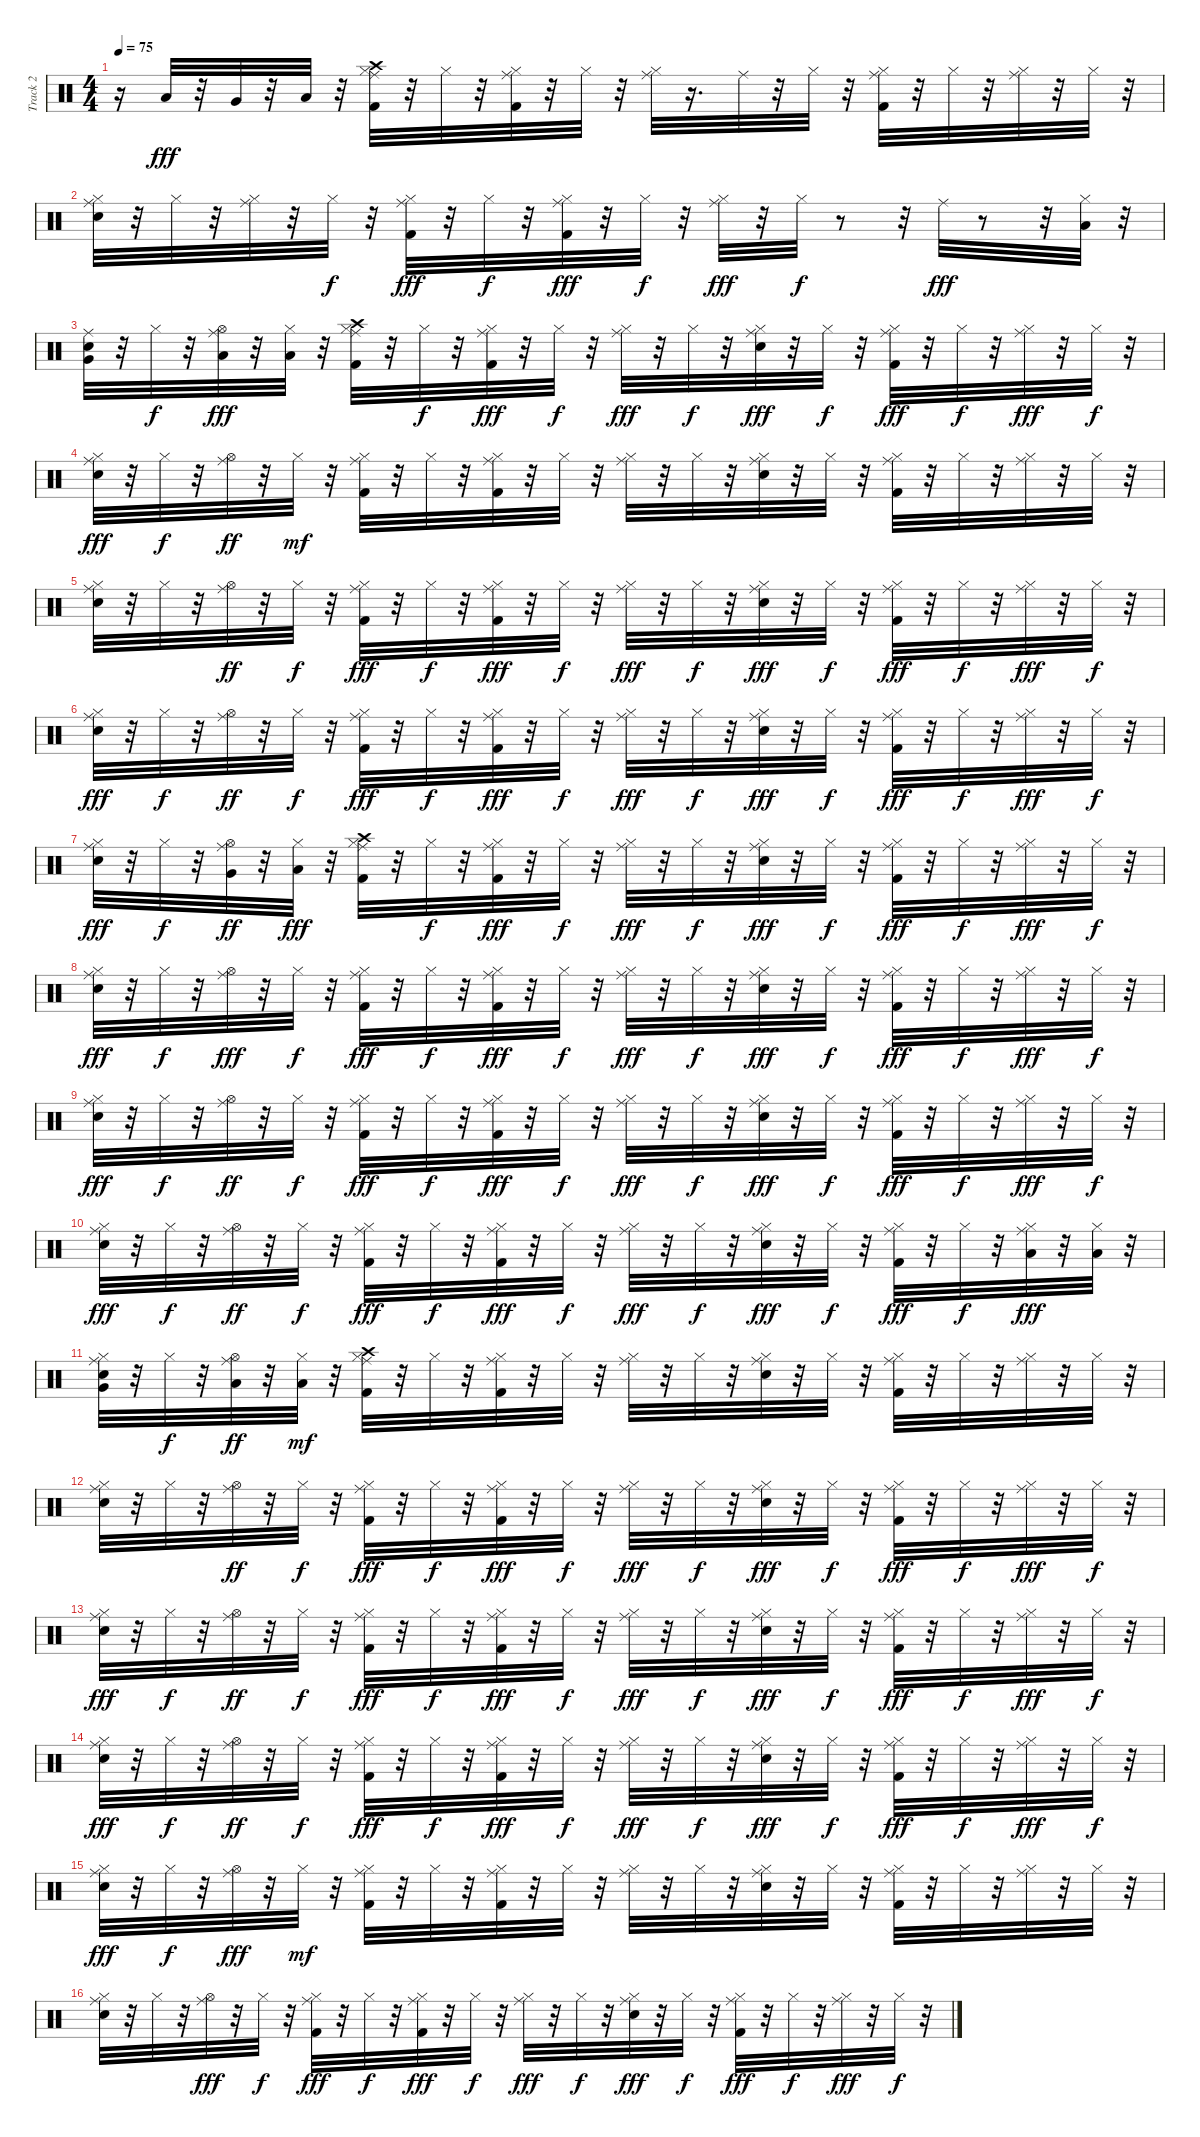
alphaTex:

\track ("Track 2" "Track 2") {instrument percussion}
\staff {score}
\articulation defaults
\ts (4 4)
\tempo 75
\clef neutral
\ks c
r.16{dy fff} "Low Tom (hit)".32 r.32 "Very Low Tom (hit)".32 r.32 "Low Floor Tom (hit)".32 r.32 ("Ride (middle)" "Kick (hit) 2" "Crash high (hit)" "Hi-Hat (closed)").32 r.32 "Hi-Hat (closed)".32 r.32 ("Kick (hit) 2" "Ride (middle)" "Hi-Hat (closed)").32 r.32 "Hi-Hat (closed)".32 r.32 ("Ride (middle)" "Hi-Hat (closed)").32 r.16{d} "Ride (middle)".32 r.32 "Hi-Hat (closed)".32 r.32 ("Kick (hit) 2" "Ride (middle)" "Hi-Hat (closed)").32 r.32 "Hi-Hat (closed)".32 r.32 ("Ride (middle)" "Hi-Hat (closed)").32 r.32 "Hi-Hat (closed)".32 r.32 |
("Snare (hit) 2" "Ride (middle)" "Hi-Hat (closed)").32 r.32 "Hi-Hat (closed)".32 r.32 ("Ride (middle)" "Hi-Hat (closed)").32 r.32 "Hi-Hat (closed)".32{dy f} r.32 ("Kick (hit) 2" "Ride (middle)" "Hi-Hat (closed)").32{dy fff} r.32 "Hi-Hat (closed)".32{dy f} r.32 ("Ride (middle)" "Kick (hit) 2" "Hi-Hat (closed)").32{dy fff} r.32 "Hi-Hat (closed)".32{dy f} r.32 ("Ride (middle)" "Hi-Hat (closed)").32{dy fff} r.32 "Hi-Hat (closed)".32{dy f} r.8 r.32 "Ride (middle)".32{dy fff} r.8 r.32 ("Low Tom (hit)" "Hi-Hat (closed)").32 r.32 |
("Snare (hit) 2" "Ride (middle)" "Very Low Tom (hit)").32 r.32 "Hi-Hat (closed)".32{dy f} r.32 ("Ride (middle)" "Low Floor Tom (hit)" "Hi-Hat (open)").32{dy fff} r.32 ("Low Floor Tom (hit)" "Hi-Hat (closed)").32 r.32 ("Kick (hit) 2" "Ride (middle)" "Crash high (hit)" "Hi-Hat (closed)").32 r.32 "Hi-Hat (closed)".32{dy f} r.32 ("Kick (hit) 2" "Ride (middle)" "Hi-Hat (closed)").32{dy fff} r.32 "Hi-Hat (closed)".32{dy f} r.32 ("Ride (middle)" "Hi-Hat (closed)").32{dy fff} r.32 "Hi-Hat (closed)".32{dy f} r.32 ("Snare (hit) 2" "Ride (middle)" "Hi-Hat (closed)").32{dy fff} r.32 "Hi-Hat (closed)".32{dy f} r.32 ("Kick (hit) 2" "Ride (middle)" "Hi-Hat (closed)").32{dy fff} r.32 "Hi-Hat (closed)".32{dy f} r.32 ("Ride (middle)" "Hi-Hat (closed)").32{dy fff} r.32 "Hi-Hat (closed)".32{dy f} r.32 |
("Snare (hit) 2" "Ride (middle)" "Hi-Hat (closed)").32{dy fff} r.32 "Hi-Hat (closed)".32{dy f} r.32 ("Ride (middle)" "Hi-Hat (open)").32{dy ff} r.32 "Hi-Hat (closed)".32{dy mf} r.32 ("Kick (hit) 2" "Ride (middle)" "Hi-Hat (closed)").32 r.32 "Hi-Hat (closed)".32 r.32 ("Kick (hit) 2" "Ride (middle)" "Hi-Hat (closed)").32 r.32 "Hi-Hat (closed)".32 r.32 ("Ride (middle)" "Hi-Hat (closed)").32 r.32 "Hi-Hat (closed)".32 r.32 ("Snare (hit) 2" "Ride (middle)" "Hi-Hat (closed)").32 r.32 "Hi-Hat (closed)".32 r.32 ("Ride (middle)" "Kick (hit) 2" "Hi-Hat (closed)").32 r.32 "Hi-Hat (closed)".32 r.32 ("Ride (middle)" "Hi-Hat (closed)").32 r.32 "Hi-Hat (closed)".32 r.32 |
("Snare (hit) 2" "Ride (middle)" "Hi-Hat (closed)").32 r.32 "Hi-Hat (closed)".32 r.32 ("Ride (middle)" "Hi-Hat (open)").32{dy ff} r.32 "Hi-Hat (closed)".32{dy f} r.32 ("Kick (hit) 2" "Ride (middle)" "Hi-Hat (closed)").32{dy fff} r.32 "Hi-Hat (closed)".32{dy f} r.32 ("Kick (hit) 2" "Ride (middle)" "Hi-Hat (closed)").32{dy fff} r.32 "Hi-Hat (closed)".32{dy f} r.32 ("Ride (middle)" "Hi-Hat (closed)").32{dy fff} r.32 "Hi-Hat (closed)".32{dy f} r.32 ("Snare (hit) 2" "Ride (middle)" "Hi-Hat (closed)").32{dy fff} r.32 "Hi-Hat (closed)".32{dy f} r.32 ("Ride (middle)" "Kick (hit) 2" "Hi-Hat (closed)").32{dy fff} r.32 "Hi-Hat (closed)".32{dy f} r.32 ("Ride (middle)" "Hi-Hat (closed)").32{dy fff} r.32 "Hi-Hat (closed)".32{dy f} r.32 |
("Snare (hit) 2" "Ride (middle)" "Hi-Hat (closed)").32{dy fff} r.32 "Hi-Hat (closed)".32{dy f} r.32 ("Ride (middle)" "Hi-Hat (open)").32{dy ff} r.32 "Hi-Hat (closed)".32{dy f} r.32 ("Ride (middle)" "Kick (hit) 2" "Hi-Hat (closed)").32{dy fff} r.32 "Hi-Hat (closed)".32{dy f} r.32 ("Kick (hit) 2" "Ride (middle)" "Hi-Hat (closed)").32{dy fff} r.32 "Hi-Hat (closed)".32{dy f} r.32 ("Ride (middle)" "Hi-Hat (closed)").32{dy fff} r.32 "Hi-Hat (closed)".32{dy f} r.32 ("Snare (hit) 2" "Ride (middle)" "Hi-Hat (closed)").32{dy fff} r.32 "Hi-Hat (closed)".32{dy f} r.32 ("Kick (hit) 2" "Ride (middle)" "Hi-Hat (closed)").32{dy fff} r.32 "Hi-Hat (closed)".32{dy f} r.32 ("Ride (middle)" "Hi-Hat (closed)").32{dy fff} r.32 "Hi-Hat (closed)".32{dy f} r.32 |
("Snare (hit) 2" "Ride (middle)" "Hi-Hat (closed)").32{dy fff} r.32 "Hi-Hat (closed)".32{dy f} r.32 ("Ride (middle)" "Very Low Tom (hit)" "Hi-Hat (open)").32{dy ff} r.32 ("Low Floor Tom (hit)" "Hi-Hat (closed)").32{dy fff} r.32 ("Kick (hit) 2" "Ride (middle)" "Crash high (hit)" "Hi-Hat (closed)").32 r.32 "Hi-Hat (closed)".32{dy f} r.32 ("Kick (hit) 2" "Ride (middle)" "Hi-Hat (closed)").32{dy fff} r.32 "Hi-Hat (closed)".32{dy f} r.32 ("Ride (middle)" "Hi-Hat (closed)").32{dy fff} r.32 "Hi-Hat (closed)".32{dy f} r.32 ("Snare (hit) 2" "Ride (middle)" "Hi-Hat (closed)").32{dy fff} r.32 "Hi-Hat (closed)".32{dy f} r.32 ("Kick (hit) 2" "Ride (middle)" "Hi-Hat (closed)").32{dy fff} r.32 "Hi-Hat (closed)".32{dy f} r.32 ("Ride (middle)" "Hi-Hat (closed)").32{dy fff} r.32 "Hi-Hat (closed)".32{dy f} r.32 |
("Ride (middle)" "Snare (hit) 2" "Hi-Hat (closed)").32{dy fff} r.32 "Hi-Hat (closed)".32{dy f} r.32 ("Ride (middle)" "Hi-Hat (open)").32{dy fff} r.32 "Hi-Hat (closed)".32{dy f} r.32 ("Kick (hit) 2" "Ride (middle)" "Hi-Hat (closed)").32{dy fff} r.32 "Hi-Hat (closed)".32{dy f} r.32 ("Ride (middle)" "Kick (hit) 2" "Hi-Hat (closed)").32{dy fff} r.32 "Hi-Hat (closed)".32{dy f} r.32 ("Ride (middle)" "Hi-Hat (closed)").32{dy fff} r.32 "Hi-Hat (closed)".32{dy f} r.32 ("Ride (middle)" "Snare (hit) 2" "Hi-Hat (closed)").32{dy fff} r.32 "Hi-Hat (closed)".32{dy f} r.32 ("Kick (hit) 2" "Ride (middle)" "Hi-Hat (closed)").32{dy fff} r.32 "Hi-Hat (closed)".32{dy f} r.32 ("Ride (middle)" "Hi-Hat (closed)").32{dy fff} r.32 "Hi-Hat (closed)".32{dy f} r.32 |
("Snare (hit) 2" "Ride (middle)" "Hi-Hat (closed)").32{dy fff} r.32 "Hi-Hat (closed)".32{dy f} r.32 ("Ride (middle)" "Hi-Hat (open)").32{dy ff} r.32 "Hi-Hat (closed)".32{dy f} r.32 ("Kick (hit) 2" "Ride (middle)" "Hi-Hat (closed)").32{dy fff} r.32 "Hi-Hat (closed)".32{dy f} r.32 ("Kick (hit) 2" "Ride (middle)" "Hi-Hat (closed)").32{dy fff} r.32 "Hi-Hat (closed)".32{dy f} r.32 ("Ride (middle)" "Hi-Hat (closed)").32{dy fff} r.32 "Hi-Hat (closed)".32{dy f} r.32 ("Snare (hit) 2" "Ride (middle)" "Hi-Hat (closed)").32{dy fff} r.32 "Hi-Hat (closed)".32{dy f} r.32 ("Ride (middle)" "Kick (hit) 2" "Hi-Hat (closed)").32{dy fff} r.32 "Hi-Hat (closed)".32{dy f} r.32 ("Ride (middle)" "Hi-Hat (closed)").32{dy fff} r.32 "Hi-Hat (closed)".32{dy f} r.32 |
("Ride (middle)" "Snare (hit) 2" "Hi-Hat (closed)").32{dy fff} r.32 "Hi-Hat (closed)".32{dy f} r.32 ("Ride (middle)" "Hi-Hat (open)").32{dy ff} r.32 "Hi-Hat (closed)".32{dy f} r.32 ("Kick (hit) 2" "Ride (middle)" "Hi-Hat (closed)").32{dy fff} r.32 "Hi-Hat (closed)".32{dy f} r.32 ("Kick (hit) 2" "Ride (middle)" "Hi-Hat (closed)").32{dy fff} r.32 "Hi-Hat (closed)".32{dy f} r.32 ("Ride (middle)" "Hi-Hat (closed)").32{dy fff} r.32 "Hi-Hat (closed)".32{dy f} r.32 ("Snare (hit) 2" "Ride (middle)" "Hi-Hat (closed)").32{dy fff} r.32 "Hi-Hat (closed)".32{dy f} r.32 ("Ride (middle)" "Kick (hit) 2" "Hi-Hat (closed)").32{dy fff} r.32 "Hi-Hat (closed)".32{dy f} r.32 ("Ride (middle)" "Low Tom (hit)" "Hi-Hat (closed)").32{dy fff} r.32 ("Low Tom (hit)" "Hi-Hat (closed)").32 r.32 |
("Snare (hit) 2" "Ride (middle)" "Very Low Tom (hit)" "Hi-Hat (closed)").32 r.32 "Hi-Hat (closed)".32{dy f} r.32 ("Ride (middle)" "Low Floor Tom (hit)" "Hi-Hat (open)").32{dy ff} r.32 ("Low Floor Tom (hit)" "Hi-Hat (closed)").32{dy mf} r.32 ("Kick (hit) 2" "Ride (middle)" "Crash high (hit)" "Hi-Hat (closed)").32 r.32 "Hi-Hat (closed)".32 r.32 ("Kick (hit) 2" "Ride (middle)" "Hi-Hat (closed)").32 r.32 "Hi-Hat (closed)".32 r.32 ("Ride (middle)" "Hi-Hat (closed)").32 r.32 "Hi-Hat (closed)".32 r.32 ("Snare (hit) 2" "Ride (middle)" "Hi-Hat (closed)").32 r.32 "Hi-Hat (closed)".32 r.32 ("Ride (middle)" "Kick (hit) 2" "Hi-Hat (closed)").32 r.32 "Hi-Hat (closed)".32 r.32 ("Ride (middle)" "Hi-Hat (closed)").32 r.32 "Hi-Hat (closed)".32 r.32 |
("Snare (hit) 2" "Ride (middle)" "Hi-Hat (closed)").32 r.32 "Hi-Hat (closed)".32 r.32 ("Ride (middle)" "Hi-Hat (open)").32{dy ff} r.32 "Hi-Hat (closed)".32{dy f} r.32 ("Kick (hit) 2" "Ride (middle)" "Hi-Hat (closed)").32{dy fff} r.32 "Hi-Hat (closed)".32{dy f} r.32 ("Kick (hit) 2" "Ride (middle)" "Hi-Hat (closed)").32{dy fff} r.32 "Hi-Hat (closed)".32{dy f} r.32 ("Ride (middle)" "Hi-Hat (closed)").32{dy fff} r.32 "Hi-Hat (closed)".32{dy f} r.32 ("Snare (hit) 2" "Ride (middle)" "Hi-Hat (closed)").32{dy fff} r.32 "Hi-Hat (closed)".32{dy f} r.32 ("Kick (hit) 2" "Ride (middle)" "Hi-Hat (closed)").32{dy fff} r.32 "Hi-Hat (closed)".32{dy f} r.32 ("Ride (middle)" "Hi-Hat (closed)").32{dy fff} r.32 "Hi-Hat (closed)".32{dy f} r.32 |
("Snare (hit) 2" "Ride (middle)" "Hi-Hat (closed)").32{dy fff} r.32 "Hi-Hat (closed)".32{dy f} r.32 ("Ride (middle)" "Hi-Hat (open)").32{dy ff} r.32 "Hi-Hat (closed)".32{dy f} r.32 ("Ride (middle)" "Kick (hit) 2" "Hi-Hat (closed)").32{dy fff} r.32 "Hi-Hat (closed)".32{dy f} r.32 ("Kick (hit) 2" "Ride (middle)" "Hi-Hat (closed)").32{dy fff} r.32 "Hi-Hat (closed)".32{dy f} r.32 ("Ride (middle)" "Hi-Hat (closed)").32{dy fff} r.32 "Hi-Hat (closed)".32{dy f} r.32 ("Snare (hit) 2" "Ride (middle)" "Hi-Hat (closed)").32{dy fff} r.32 "Hi-Hat (closed)".32{dy f} r.32 ("Kick (hit) 2" "Ride (middle)" "Hi-Hat (closed)").32{dy fff} r.32 "Hi-Hat (closed)".32{dy f} r.32 ("Ride (middle)" "Hi-Hat (closed)").32{dy fff} r.32 "Hi-Hat (closed)".32{dy f} r.32 |
("Snare (hit) 2" "Ride (middle)" "Hi-Hat (closed)").32{dy fff} r.32 "Hi-Hat (closed)".32{dy f} r.32 ("Ride (middle)" "Hi-Hat (open)").32{dy ff} r.32 "Hi-Hat (closed)".32{dy f} r.32 ("Kick (hit) 2" "Ride (middle)" "Hi-Hat (closed)").32{dy fff} r.32 "Hi-Hat (closed)".32{dy f} r.32 ("Ride (middle)" "Kick (hit) 2" "Hi-Hat (closed)").32{dy fff} r.32 "Hi-Hat (closed)".32{dy f} r.32 ("Ride (middle)" "Hi-Hat (closed)").32{dy fff} r.32 "Hi-Hat (closed)".32{dy f} r.32 ("Ride (middle)" "Snare (hit) 2" "Hi-Hat (closed)").32{dy fff} r.32 "Hi-Hat (closed)".32{dy f} r.32 ("Ride (middle)" "Kick (hit) 2" "Hi-Hat (closed)").32{dy fff} r.32 "Hi-Hat (closed)".32{dy f} r.32 ("Ride (middle)" "Hi-Hat (closed)").32{dy fff} r.32 "Hi-Hat (closed)".32{dy f} r.32 |
("Snare (hit) 2" "Ride (middle)" "Hi-Hat (closed)").32{dy fff} r.32 "Hi-Hat (closed)".32{dy f} r.32 ("Ride (middle)" "Hi-Hat (open)").32{dy fff} r.32 "Hi-Hat (closed)".32{dy mf} r.32 ("Kick (hit) 2" "Ride (middle)" "Hi-Hat (closed)").32 r.32 "Hi-Hat (closed)".32 r.32 ("Kick (hit) 2" "Ride (middle)" "Hi-Hat (closed)").32 r.32 "Hi-Hat (closed)".32 r.32 ("Ride (middle)" "Hi-Hat (closed)").32 r.32 "Hi-Hat (closed)".32 r.32 ("Snare (hit) 2" "Ride (middle)" "Hi-Hat (closed)").32 r.32 "Hi-Hat (closed)".32 r.32 ("Kick (hit) 2" "Ride (middle)" "Hi-Hat (closed)").32 r.32 "Hi-Hat (closed)".32 r.32 ("Ride (middle)" "Hi-Hat (closed)").32 r.32 "Hi-Hat (closed)".32 r.32 |
("Snare (hit) 2" "Ride (middle)" "Hi-Hat (closed)").32 r.32 "Hi-Hat (closed)".32 r.32 ("Ride (middle)" "Hi-Hat (open)").32{dy fff} r.32 "Hi-Hat (closed)".32{dy f} r.32 ("Kick (hit) 2" "Ride (middle)" "Hi-Hat (closed)").32{dy fff} r.32 "Hi-Hat (closed)".32{dy f} r.32 ("Ride (middle)" "Kick (hit) 2" "Hi-Hat (closed)").32{dy fff} r.32 "Hi-Hat (closed)".32{dy f} r.32 ("Ride (middle)" "Hi-Hat (closed)").32{dy fff} r.32 "Hi-Hat (closed)".32{dy f} r.32 ("Snare (hit) 2" "Ride (middle)" "Hi-Hat (closed)").32{dy fff} r.32 "Hi-Hat (closed)".32{dy f} r.32 ("Kick (hit) 2" "Ride (middle)" "Hi-Hat (closed)").32{dy fff} r.32 "Hi-Hat (closed)".32{dy f} r.32 ("Ride (middle)" "Hi-Hat (closed)").32{dy fff} r.32 "Hi-Hat (closed)".32{dy f} r.32
